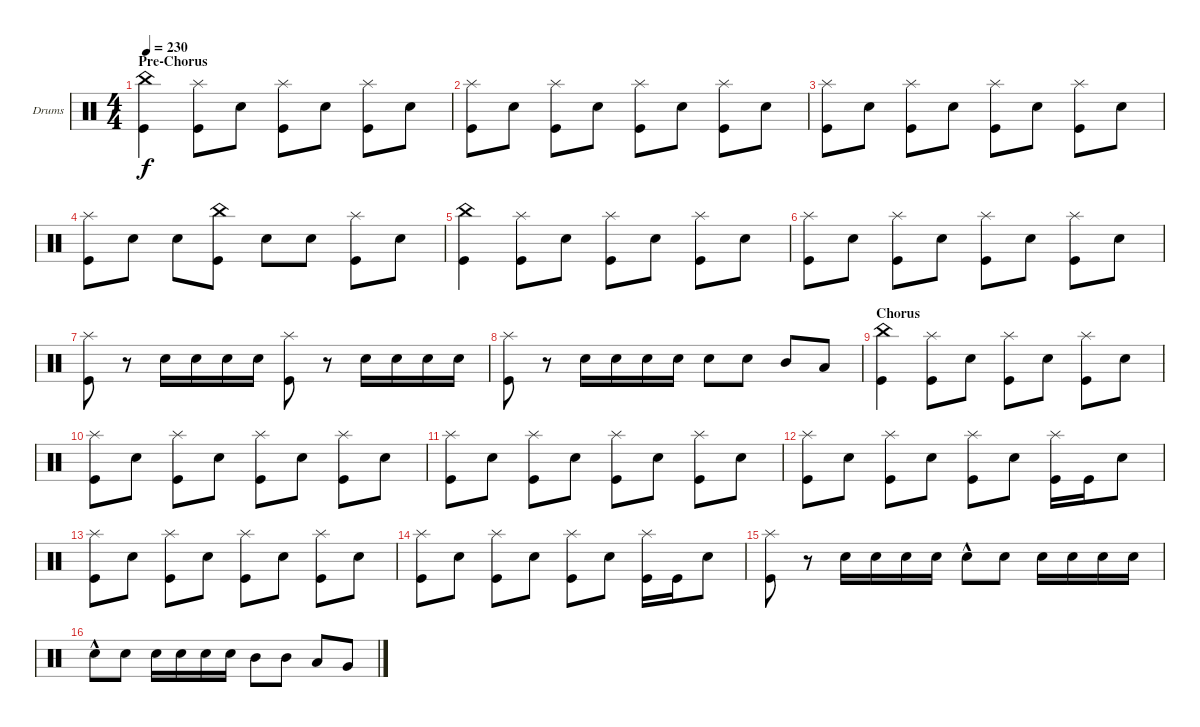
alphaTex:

\defaultSystemsLayout 4
\bracketExtendMode groupsimilarinstruments
\firstSystemTrackNameOrientation horizontal
\otherSystemsTrackNameOrientation horizontal
\track ("Drumkit" "Drums") {instrument percussion}
\staff {score}
\articulation defaults
\ts (4 4)
\section ("" "Pre-Chorus")
\tempo 230
\clef neutral
\ks c
("China (hit)" "Kick (hit)").4{dy f} ("Kick (hit)" "Splash (hit)").8 "Snare (hit) 2".8 ("Kick (hit)" "Splash (hit)").8 "Snare (hit) 2".8 ("Kick (hit)" "Splash (hit)").8 "Snare (hit) 2".8 |
("Kick (hit)" "Splash (hit)").8 "Snare (hit) 2".8 ("Kick (hit)" "Splash (hit)").8 "Snare (hit) 2".8 ("Kick (hit)" "Splash (hit)").8 "Snare (hit) 2".8 ("Kick (hit)" "Splash (hit)").8 "Snare (hit) 2".8 |
("Kick (hit)" "Splash (hit)").8 "Snare (hit) 2".8 ("Kick (hit)" "Splash (hit)").8 "Snare (hit) 2".8 ("Kick (hit)" "Splash (hit)").8 "Snare (hit) 2".8 ("Kick (hit)" "Splash (hit)").8 "Snare (hit) 2".8 |
("Kick (hit)" "Splash (hit)").8 "Snare (hit) 2".8 "Snare (hit) 2".8 ("Kick (hit)" "China (hit)").8 "Snare (hit) 2".8 "Snare (hit) 2".8 ("Kick (hit)" "Splash (hit)").8 "Snare (hit) 2".8 |
("China (hit)" "Kick (hit)").4 ("Kick (hit)" "Splash (hit)").8 "Snare (hit) 2".8 ("Kick (hit)" "Splash (hit)").8 "Snare (hit) 2".8 ("Kick (hit)" "Splash (hit)").8 "Snare (hit) 2".8 |
("Kick (hit)" "Splash (hit)").8 "Snare (hit) 2".8 ("Kick (hit)" "Splash (hit)").8 "Snare (hit) 2".8 ("Kick (hit)" "Splash (hit)").8 "Snare (hit) 2".8 ("Kick (hit)" "Splash (hit)").8 "Snare (hit) 2".8 |
("Kick (hit)" "Splash (hit)").8 r.8 "Snare (hit) 2".16 "Snare (hit) 2".16 "Snare (hit) 2".16 "Snare (hit) 2".16 ("Kick (hit)" "Splash (hit)").8 r.8 "Snare (hit) 2".16 "Snare (hit) 2".16 "Snare (hit) 2".16 "Snare (hit) 2".16 |
("Kick (hit)" "Splash (hit)").8 r.8 "Snare (hit) 2".16 "Snare (hit) 2".16 "Snare (hit) 2".16 "Snare (hit) 2".16 "Snare (hit) 2".8 "Snare (hit) 2".8 "Mid Tom (hit)".8 "Low Tom (hit)".8 |
\section ("" "Chorus")
("China (hit)" "Kick (hit)").4 ("Kick (hit)" "Splash (hit)").8 "Snare (hit) 2".8 ("Kick (hit)" "Splash (hit)").8 "Snare (hit) 2".8 ("Kick (hit)" "Splash (hit)").8 "Snare (hit) 2".8 |
("Kick (hit)" "Splash (hit)").8 "Snare (hit) 2".8 ("Kick (hit)" "Splash (hit)").8 "Snare (hit) 2".8 ("Kick (hit)" "Splash (hit)").8 "Snare (hit) 2".8 ("Kick (hit)" "Splash (hit)").8 "Snare (hit) 2".8 |
("Kick (hit)" "Splash (hit)").8 "Snare (hit) 2".8 ("Kick (hit)" "Splash (hit)").8 "Snare (hit) 2".8 ("Kick (hit)" "Splash (hit)").8 "Snare (hit) 2".8 ("Kick (hit)" "Splash (hit)").8 "Snare (hit) 2".8 |
("Kick (hit)" "Splash (hit)").8 "Snare (hit) 2".8 ("Kick (hit)" "Splash (hit)").8 "Snare (hit) 2".8 ("Kick (hit)" "Splash (hit)").8 "Snare (hit) 2".8 ("Kick (hit)" "Splash (hit)").16 "Kick (hit)".16 "Snare (hit) 2".8 |
("Kick (hit)" "Splash (hit)").8 "Snare (hit) 2".8 ("Kick (hit)" "Splash (hit)").8 "Snare (hit) 2".8 ("Kick (hit)" "Splash (hit)").8 "Snare (hit) 2".8 ("Kick (hit)" "Splash (hit)").8 "Snare (hit) 2".8 |
("Kick (hit)" "Splash (hit)").8 "Snare (hit) 2".8 ("Kick (hit)" "Splash (hit)").8 "Snare (hit) 2".8 ("Kick (hit)" "Splash (hit)").8 "Snare (hit) 2".8 ("Kick (hit)" "Splash (hit)").16 "Kick (hit)".16 "Snare (hit) 2".8 |
("Kick (hit)" "Splash (hit)").8 r.8 "Snare (hit) 2".16 "Snare (hit) 2".16 "Snare (hit) 2".16 "Snare (hit) 2".16 "Snare (hit) 2"{hac}.8 "Snare (hit) 2".8 "Snare (hit) 2".16 "Snare (hit) 2".16 "Snare (hit) 2".16 "Snare (hit) 2".16 |
"Snare (hit) 2"{hac}.8 "Snare (hit) 2".8 "Snare (hit) 2".16 "Snare (hit) 2".16 "Snare (hit) 2".16 "Snare (hit) 2".16 "Mid Tom (hit)".8 "Mid Tom (hit)".8 "Low Tom (hit)".8 "Very Low Tom (hit)".8
